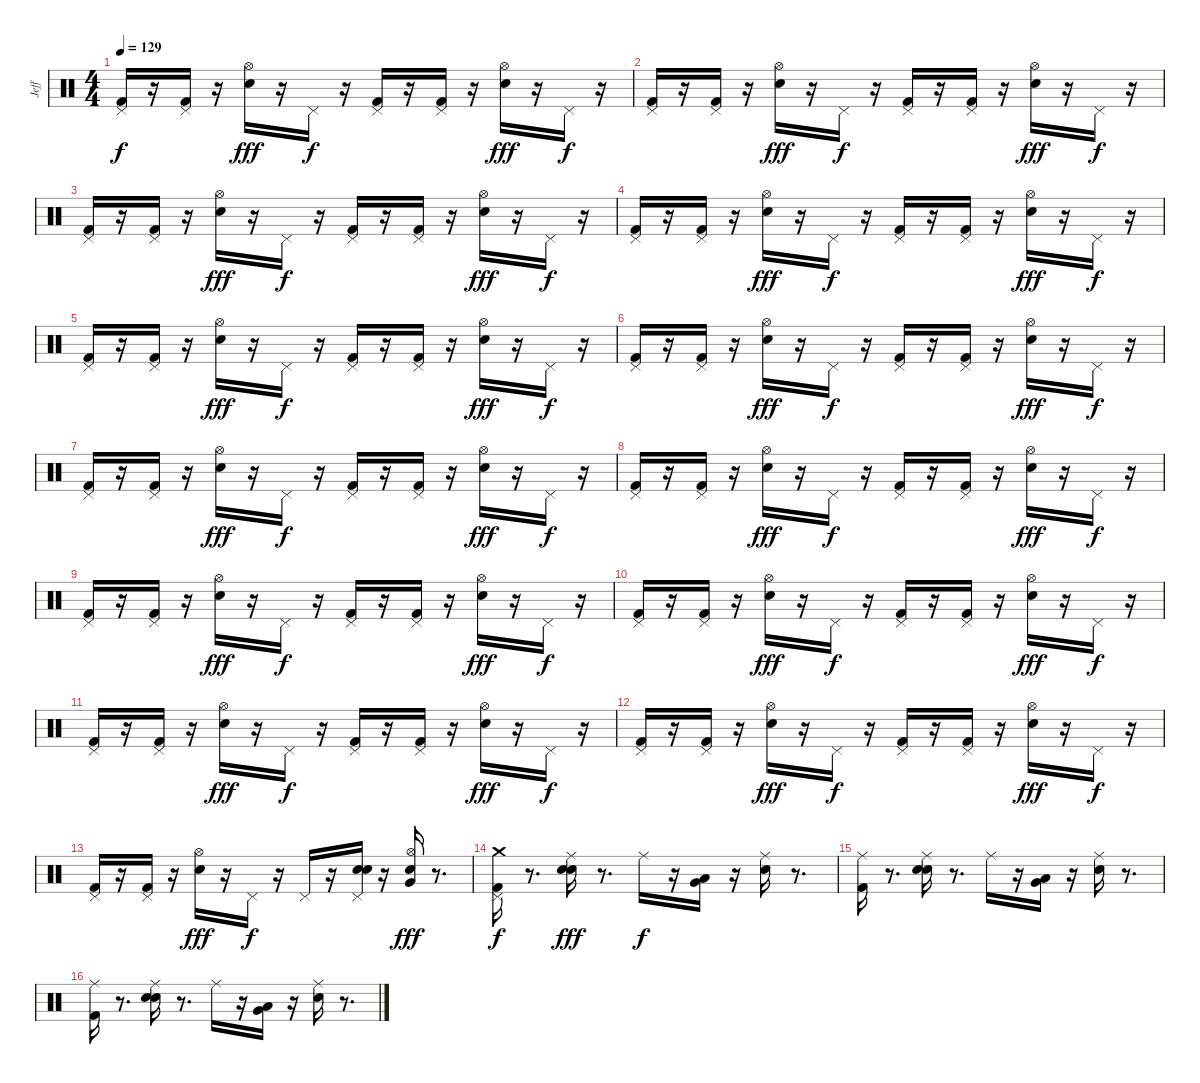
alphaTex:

\track ("Jeff" "Jeff") {instrument percussion}
\staff {score}
\articulation defaults
\ts (4 4)
\tempo 129
\clef neutral
\ks c
("Kick (hit) 2" "Pedal Hi-Hat (hit)").16{dy f} r.16 ("Kick (hit) 2" "Pedal Hi-Hat (hit)").16 r.16 ("Electric Snare (hit)" "Hi-Hat (open)").16{dy fff} r.16 "Pedal Hi-Hat (hit)".16{dy f} r.16 ("Kick (hit) 2" "Pedal Hi-Hat (hit)").16 r.16 ("Kick (hit) 2" "Pedal Hi-Hat (hit)").16 r.16 ("Electric Snare (hit)" "Hi-Hat (open)").16{dy fff} r.16 "Pedal Hi-Hat (hit)".16{dy f} r.16 |
("Kick (hit) 2" "Pedal Hi-Hat (hit)").16 r.16 ("Kick (hit) 2" "Pedal Hi-Hat (hit)").16 r.16 ("Electric Snare (hit)" "Hi-Hat (open)").16{dy fff} r.16 "Pedal Hi-Hat (hit)".16{dy f} r.16 ("Kick (hit) 2" "Pedal Hi-Hat (hit)").16 r.16 ("Kick (hit) 2" "Pedal Hi-Hat (hit)").16 r.16 ("Electric Snare (hit)" "Hi-Hat (open)").16{dy fff} r.16 "Pedal Hi-Hat (hit)".16{dy f} r.16 |
("Kick (hit) 2" "Pedal Hi-Hat (hit)").16 r.16 ("Kick (hit) 2" "Pedal Hi-Hat (hit)").16 r.16 ("Electric Snare (hit)" "Hi-Hat (open)").16{dy fff} r.16 "Pedal Hi-Hat (hit)".16{dy f} r.16 ("Kick (hit) 2" "Pedal Hi-Hat (hit)").16 r.16 ("Kick (hit) 2" "Pedal Hi-Hat (hit)").16 r.16 ("Electric Snare (hit)" "Hi-Hat (open)").16{dy fff} r.16 "Pedal Hi-Hat (hit)".16{dy f} r.16 |
("Kick (hit) 2" "Pedal Hi-Hat (hit)").16 r.16 ("Kick (hit) 2" "Pedal Hi-Hat (hit)").16 r.16 ("Electric Snare (hit)" "Hi-Hat (open)").16{dy fff} r.16 "Pedal Hi-Hat (hit)".16{dy f} r.16 ("Kick (hit) 2" "Pedal Hi-Hat (hit)").16 r.16 ("Kick (hit) 2" "Pedal Hi-Hat (hit)").16 r.16 ("Electric Snare (hit)" "Hi-Hat (open)").16{dy fff} r.16 "Pedal Hi-Hat (hit)".16{dy f} r.16 |
("Kick (hit) 2" "Pedal Hi-Hat (hit)").16 r.16 ("Kick (hit) 2" "Pedal Hi-Hat (hit)").16 r.16 ("Electric Snare (hit)" "Hi-Hat (open)").16{dy fff} r.16 "Pedal Hi-Hat (hit)".16{dy f} r.16 ("Kick (hit) 2" "Pedal Hi-Hat (hit)").16 r.16 ("Kick (hit) 2" "Pedal Hi-Hat (hit)").16 r.16 ("Electric Snare (hit)" "Hi-Hat (open)").16{dy fff} r.16 "Pedal Hi-Hat (hit)".16{dy f} r.16 |
("Kick (hit) 2" "Pedal Hi-Hat (hit)").16 r.16 ("Kick (hit) 2" "Pedal Hi-Hat (hit)").16 r.16 ("Electric Snare (hit)" "Hi-Hat (open)").16{dy fff} r.16 "Pedal Hi-Hat (hit)".16{dy f} r.16 ("Kick (hit) 2" "Pedal Hi-Hat (hit)").16 r.16 ("Kick (hit) 2" "Pedal Hi-Hat (hit)").16 r.16 ("Electric Snare (hit)" "Hi-Hat (open)").16{dy fff} r.16 "Pedal Hi-Hat (hit)".16{dy f} r.16 |
("Kick (hit) 2" "Pedal Hi-Hat (hit)").16 r.16 ("Kick (hit) 2" "Pedal Hi-Hat (hit)").16 r.16 ("Electric Snare (hit)" "Hi-Hat (open)").16{dy fff} r.16 "Pedal Hi-Hat (hit)".16{dy f} r.16 ("Kick (hit) 2" "Pedal Hi-Hat (hit)").16 r.16 ("Kick (hit) 2" "Pedal Hi-Hat (hit)").16 r.16 ("Electric Snare (hit)" "Hi-Hat (open)").16{dy fff} r.16 "Pedal Hi-Hat (hit)".16{dy f} r.16 |
("Kick (hit) 2" "Pedal Hi-Hat (hit)").16 r.16 ("Kick (hit) 2" "Pedal Hi-Hat (hit)").16 r.16 ("Electric Snare (hit)" "Hi-Hat (open)").16{dy fff} r.16 "Pedal Hi-Hat (hit)".16{dy f} r.16 ("Kick (hit) 2" "Pedal Hi-Hat (hit)").16 r.16 ("Kick (hit) 2" "Pedal Hi-Hat (hit)").16 r.16 ("Electric Snare (hit)" "Hi-Hat (open)").16{dy fff} r.16 "Pedal Hi-Hat (hit)".16{dy f} r.16 |
("Kick (hit) 2" "Pedal Hi-Hat (hit)").16 r.16 ("Kick (hit) 2" "Pedal Hi-Hat (hit)").16 r.16 ("Electric Snare (hit)" "Hi-Hat (open)").16{dy fff} r.16 "Pedal Hi-Hat (hit)".16{dy f} r.16 ("Kick (hit) 2" "Pedal Hi-Hat (hit)").16 r.16 ("Kick (hit) 2" "Pedal Hi-Hat (hit)").16 r.16 ("Electric Snare (hit)" "Hi-Hat (open)").16{dy fff} r.16 "Pedal Hi-Hat (hit)".16{dy f} r.16 |
("Kick (hit) 2" "Pedal Hi-Hat (hit)").16 r.16 ("Kick (hit) 2" "Pedal Hi-Hat (hit)").16 r.16 ("Electric Snare (hit)" "Hi-Hat (open)").16{dy fff} r.16 "Pedal Hi-Hat (hit)".16{dy f} r.16 ("Kick (hit) 2" "Pedal Hi-Hat (hit)").16 r.16 ("Kick (hit) 2" "Pedal Hi-Hat (hit)").16 r.16 ("Electric Snare (hit)" "Hi-Hat (open)").16{dy fff} r.16 "Pedal Hi-Hat (hit)".16{dy f} r.16 |
("Kick (hit) 2" "Pedal Hi-Hat (hit)").16 r.16 ("Kick (hit) 2" "Pedal Hi-Hat (hit)").16 r.16 ("Electric Snare (hit)" "Hi-Hat (open)").16{dy fff} r.16 "Pedal Hi-Hat (hit)".16{dy f} r.16 ("Kick (hit) 2" "Pedal Hi-Hat (hit)").16 r.16 ("Kick (hit) 2" "Pedal Hi-Hat (hit)").16 r.16 ("Electric Snare (hit)" "Hi-Hat (open)").16{dy fff} r.16 "Pedal Hi-Hat (hit)".16{dy f} r.16 |
("Kick (hit) 2" "Pedal Hi-Hat (hit)").16 r.16 ("Kick (hit) 2" "Pedal Hi-Hat (hit)").16 r.16 ("Electric Snare (hit)" "Hi-Hat (open)").16{dy fff} r.16 "Pedal Hi-Hat (hit)".16{dy f} r.16 ("Kick (hit) 2" "Pedal Hi-Hat (hit)").16 r.16 ("Kick (hit) 2" "Pedal Hi-Hat (hit)").16 r.16 ("Electric Snare (hit)" "Hi-Hat (open)").16{dy fff} r.16 "Pedal Hi-Hat (hit)".16{dy f} r.16 |
("Kick (hit) 2" "Pedal Hi-Hat (hit)").16 r.16 ("Kick (hit) 2" "Pedal Hi-Hat (hit)").16 r.16 ("Electric Snare (hit)" "Hi-Hat (open)").16{dy fff} r.16 "Pedal Hi-Hat (hit)".16{dy f} r.16 "Pedal Hi-Hat (hit)".16 r.16 ("Snare (hit) 2" "Electric Snare (hit)" "Pedal Hi-Hat (hit)").16 r.16 ("Electric Snare (hit)" "Very Low Tom (hit)" "Hi-Hat (open)").16{dy fff} r.8{d} |
("Kick (hit) 2" "Pedal Hi-Hat (hit)" "Crash medium (hit)").16{dy f} r.8{d} ("Snare (hit) 2" "Electric Snare (hit)" "Ride (middle)").16{dy fff} r.8{d} "Ride (middle)".16{dy f} r.16 ("Very Low Tom (hit)" "Low Tom (hit)").16 r.16 ("Snare (hit) 2" "Ride (middle)").16 r.8{d} |
("Kick (hit) 2" "Ride (middle)").16 r.8{d} ("Snare (hit) 2" "Electric Snare (hit)" "Ride (middle)").16 r.8{d} "Ride (middle)".16 r.16 ("Very Low Tom (hit)" "Low Tom (hit)").16 r.16 ("Snare (hit) 2" "Ride (middle)").16 r.8{d} |
("Kick (hit) 2" "Ride (middle)").16 r.8{d} ("Snare (hit) 2" "Electric Snare (hit)" "Ride (middle)").16 r.8{d} "Ride (middle)".16 r.16 ("Very Low Tom (hit)" "Low Tom (hit)").16 r.16 ("Snare (hit) 2" "Ride (middle)").16 r.8{d}
